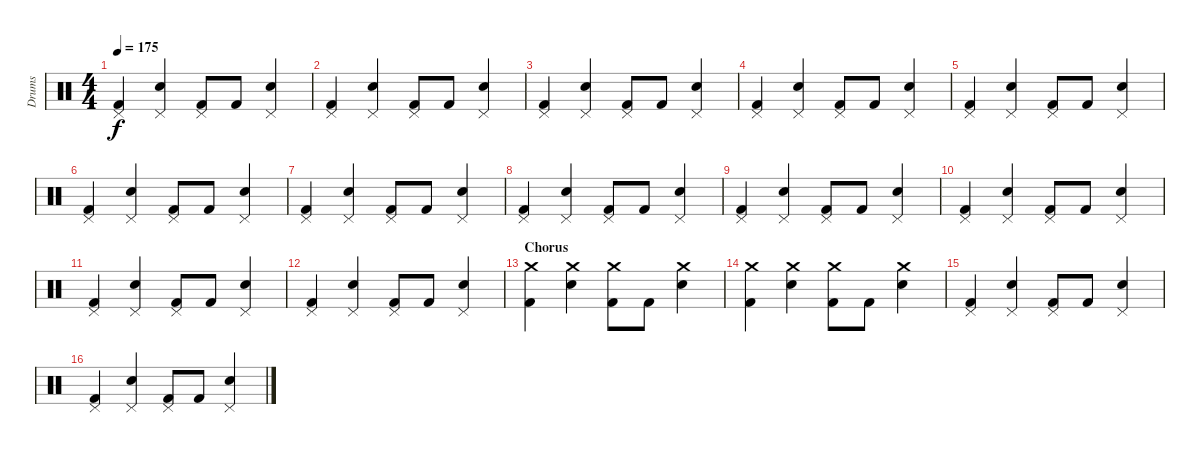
\track ("Drums" "Drums") {instrument percussion}
\staff {score}
\articulation defaults
\ts (4 4)
\tempo 175
\clef neutral
\ks c
("Pedal Hi-Hat (hit)" "Kick (hit) 2").4{dy f} ("Pedal Hi-Hat (hit)" "Electric Snare (hit)").4 ("Pedal Hi-Hat (hit)" "Kick (hit) 2").8 "Kick (hit) 2".8 ("Pedal Hi-Hat (hit)" "Electric Snare (hit)").4 |
("Pedal Hi-Hat (hit)" "Kick (hit) 2").4 ("Pedal Hi-Hat (hit)" "Electric Snare (hit)").4 ("Pedal Hi-Hat (hit)" "Kick (hit) 2").8 "Kick (hit) 2".8 ("Pedal Hi-Hat (hit)" "Electric Snare (hit)").4 |
("Pedal Hi-Hat (hit)" "Kick (hit) 2").4 ("Pedal Hi-Hat (hit)" "Electric Snare (hit)").4 ("Pedal Hi-Hat (hit)" "Kick (hit) 2").8 "Kick (hit) 2".8 ("Pedal Hi-Hat (hit)" "Electric Snare (hit)").4 |
("Pedal Hi-Hat (hit)" "Kick (hit) 2").4 ("Pedal Hi-Hat (hit)" "Electric Snare (hit)").4 ("Pedal Hi-Hat (hit)" "Kick (hit) 2").8 "Kick (hit) 2".8 ("Pedal Hi-Hat (hit)" "Electric Snare (hit)").4 |
("Pedal Hi-Hat (hit)" "Kick (hit) 2").4 ("Pedal Hi-Hat (hit)" "Electric Snare (hit)").4 ("Pedal Hi-Hat (hit)" "Kick (hit) 2").8 "Kick (hit) 2".8 ("Pedal Hi-Hat (hit)" "Electric Snare (hit)").4 |
("Pedal Hi-Hat (hit)" "Kick (hit) 2").4 ("Pedal Hi-Hat (hit)" "Electric Snare (hit)").4 ("Pedal Hi-Hat (hit)" "Kick (hit) 2").8 "Kick (hit) 2".8 ("Pedal Hi-Hat (hit)" "Electric Snare (hit)").4 |
("Pedal Hi-Hat (hit)" "Kick (hit) 2").4 ("Pedal Hi-Hat (hit)" "Electric Snare (hit)").4 ("Pedal Hi-Hat (hit)" "Kick (hit) 2").8 "Kick (hit) 2".8 ("Pedal Hi-Hat (hit)" "Electric Snare (hit)").4 |
("Pedal Hi-Hat (hit)" "Kick (hit) 2").4 ("Pedal Hi-Hat (hit)" "Electric Snare (hit)").4 ("Pedal Hi-Hat (hit)" "Kick (hit) 2").8 "Kick (hit) 2".8 ("Pedal Hi-Hat (hit)" "Electric Snare (hit)").4 |
("Pedal Hi-Hat (hit)" "Kick (hit) 2").4 ("Pedal Hi-Hat (hit)" "Electric Snare (hit)").4 ("Pedal Hi-Hat (hit)" "Kick (hit) 2").8 "Kick (hit) 2".8 ("Pedal Hi-Hat (hit)" "Electric Snare (hit)").4 |
("Pedal Hi-Hat (hit)" "Kick (hit) 2").4 ("Pedal Hi-Hat (hit)" "Electric Snare (hit)").4 ("Pedal Hi-Hat (hit)" "Kick (hit) 2").8 "Kick (hit) 2".8 ("Pedal Hi-Hat (hit)" "Electric Snare (hit)").4 |
("Pedal Hi-Hat (hit)" "Kick (hit) 2").4 ("Pedal Hi-Hat (hit)" "Electric Snare (hit)").4 ("Pedal Hi-Hat (hit)" "Kick (hit) 2").8 "Kick (hit) 2".8 ("Pedal Hi-Hat (hit)" "Electric Snare (hit)").4 |
("Pedal Hi-Hat (hit)" "Kick (hit) 2").4 ("Pedal Hi-Hat (hit)" "Electric Snare (hit)").4 ("Pedal Hi-Hat (hit)" "Kick (hit) 2").8 "Kick (hit) 2".8 ("Pedal Hi-Hat (hit)" "Electric Snare (hit)").4 |
\section ("" "Chorus")
("Crash medium (hit)" "Kick (hit) 2").4 ("Crash medium (hit)" "Electric Snare (hit)").4 ("Crash medium (hit)" "Kick (hit) 2").8 "Kick (hit) 2".8 ("Crash medium (hit)" "Electric Snare (hit)").4 |
("Crash medium (hit)" "Kick (hit) 2").4 ("Crash medium (hit)" "Electric Snare (hit)").4 ("Crash medium (hit)" "Kick (hit) 2").8 "Kick (hit) 2".8 ("Crash medium (hit)" "Electric Snare (hit)").4 |
("Pedal Hi-Hat (hit)" "Kick (hit) 2").4 ("Pedal Hi-Hat (hit)" "Electric Snare (hit)").4 ("Pedal Hi-Hat (hit)" "Kick (hit) 2").8 "Kick (hit) 2".8 ("Pedal Hi-Hat (hit)" "Electric Snare (hit)").4 |
("Pedal Hi-Hat (hit)" "Kick (hit) 2").4 ("Pedal Hi-Hat (hit)" "Electric Snare (hit)").4 ("Pedal Hi-Hat (hit)" "Kick (hit) 2").8 "Kick (hit) 2".8 ("Pedal Hi-Hat (hit)" "Electric Snare (hit)").4
